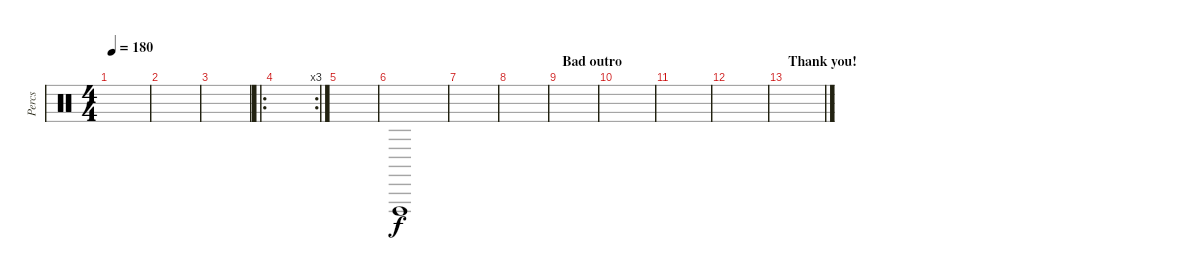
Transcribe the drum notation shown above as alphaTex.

\track ("Percs" "Percs") {instrument percussion}
\staff {score}
\articulation defaults
\ts (4 4)
\tempo 180
\clef neutral
\ks c
|
|
|
\ro
\rc 3
|
|
"Vibraslap (hit)".1 |
|
|
\section ("" "Bad outro")
|
|
|
|
\section ("" "Thank you!")
